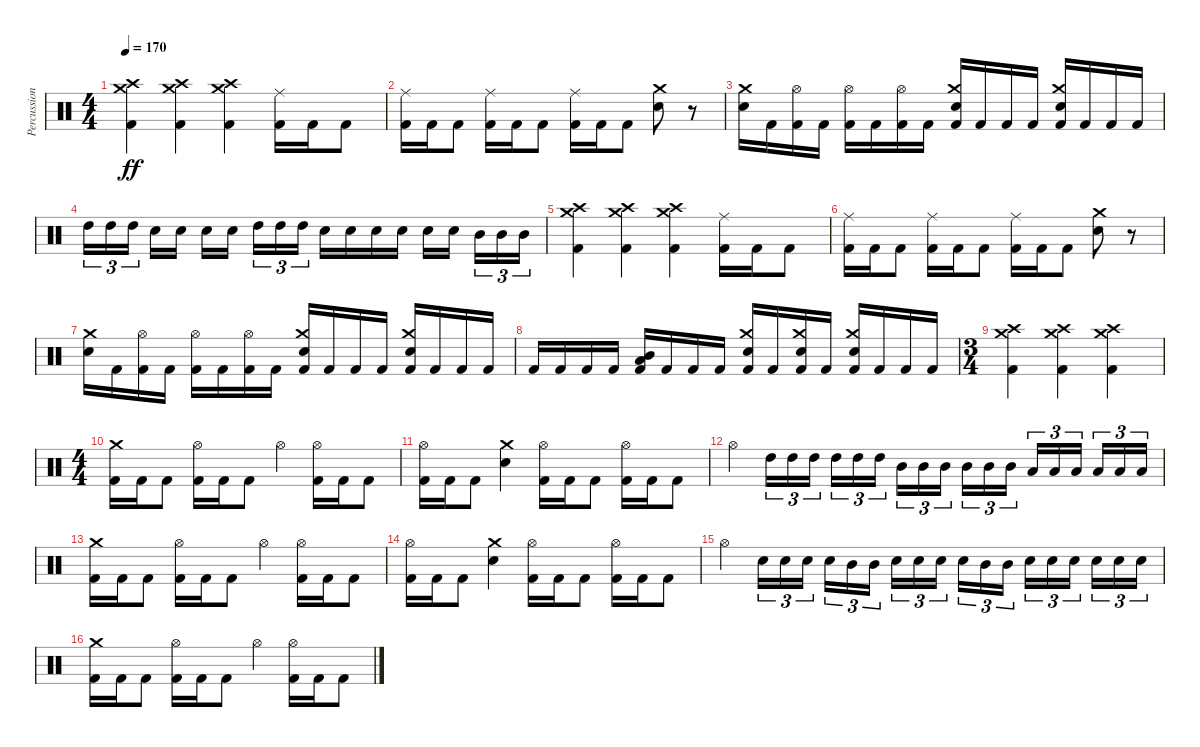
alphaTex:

\track ("Percussion" "Percussion") {instrument percussion}
\staff {score}
\articulation defaults
\ts (4 4)
\tempo 170
\clef neutral
\ks c
("Kick (hit) 2" "Crash medium (hit)" "Crash high (hit)").4{dy ff} ("Kick (hit) 2" "Crash medium (hit)" "Crash high (hit)").4 ("Kick (hit) 2" "Crash medium (hit)" "Crash high (hit)").4 ("Kick (hit) 2" "Ride (middle)").16 "Kick (hit) 2".16 "Kick (hit) 2".8 |
("Kick (hit) 2" "Ride (middle)").16 "Kick (hit) 2".16 "Kick (hit) 2".8 ("Kick (hit) 2" "Ride (middle)").16 "Kick (hit) 2".16 "Kick (hit) 2".8 ("Kick (hit) 2" "Ride (middle)").16 "Kick (hit) 2".16 "Kick (hit) 2".8 ("Crash medium (hit)" "Electric Snare (hit)").8 r.8 |
("Crash medium (hit)" "Electric Snare (hit)").16 "Kick (hit) 2".16 ("Kick (hit) 2" "Hi-Hat (open)").16 "Kick (hit) 2".16 ("Kick (hit) 2" "Hi-Hat (open)").16 "Kick (hit) 2".16 ("Kick (hit) 2" "Hi-Hat (open)").16 "Kick (hit) 2".16 ("Kick (hit) 2" "Crash medium (hit)" "Electric Snare (hit)").16 "Kick (hit) 2".16 "Kick (hit) 2".16 "Kick (hit) 2".16 ("Kick (hit) 2" "Crash medium (hit)" "Electric Snare (hit)").16 "Kick (hit) 2".16 "Kick (hit) 2".16 "Kick (hit) 2".16 |
"High Tom (hit)".16{tu (3 2)} "High Tom (hit)".16{tu (3 2)} "High Tom (hit)".16{tu (3 2)} "Electric Snare (hit)".16 "Electric Snare (hit)".16 "Electric Snare (hit)".16 "Electric Snare (hit)".16 "High Tom (hit)".16{tu (3 2)} "High Tom (hit)".16{tu (3 2)} "High Tom (hit)".16{tu (3 2)} "Electric Snare (hit)".16 "Electric Snare (hit)".16 "Electric Snare (hit)".16 "Electric Snare (hit)".16 "Electric Snare (hit)".16 "Electric Snare (hit)".16 "Mid Tom (hit)".16{tu (3 2)} "Mid Tom (hit)".16{tu (3 2)} "Mid Tom (hit)".16{tu (3 2)} |
("Kick (hit) 2" "Crash medium (hit)" "Crash high (hit)").4 ("Kick (hit) 2" "Crash medium (hit)" "Crash high (hit)").4 ("Kick (hit) 2" "Crash medium (hit)" "Crash high (hit)").4 ("Kick (hit) 2" "Ride (middle)").16 "Kick (hit) 2".16 "Kick (hit) 2".8 |
("Kick (hit) 2" "Ride (middle)").16 "Kick (hit) 2".16 "Kick (hit) 2".8 ("Kick (hit) 2" "Ride (middle)").16 "Kick (hit) 2".16 "Kick (hit) 2".8 ("Kick (hit) 2" "Ride (middle)").16 "Kick (hit) 2".16 "Kick (hit) 2".8 ("Crash medium (hit)" "Electric Snare (hit)").8 r.8 |
("Crash medium (hit)" "Electric Snare (hit)").16 "Kick (hit) 2".16 ("Kick (hit) 2" "Hi-Hat (open)").16 "Kick (hit) 2".16 ("Kick (hit) 2" "Hi-Hat (open)").16 "Kick (hit) 2".16 ("Kick (hit) 2" "Hi-Hat (open)").16 "Kick (hit) 2".16 ("Kick (hit) 2" "Crash medium (hit)" "Electric Snare (hit)").16 "Kick (hit) 2".16 "Kick (hit) 2".16 "Kick (hit) 2".16 ("Kick (hit) 2" "Crash medium (hit)" "Electric Snare (hit)").16 "Kick (hit) 2".16 "Kick (hit) 2".16 "Kick (hit) 2".16 |
"Kick (hit) 2".16 "Kick (hit) 2".16 "Kick (hit) 2".16 "Kick (hit) 2".16 ("Kick (hit) 2" "Low Tom (hit)" "Mid Tom (hit)").16 "Kick (hit) 2".16 "Kick (hit) 2".16 "Kick (hit) 2".16 ("Kick (hit) 2" "Electric Snare (hit)" "Crash medium (hit)").16 "Kick (hit) 2".16 ("Kick (hit) 2" "Electric Snare (hit)" "Crash medium (hit)").16 "Kick (hit) 2".16 ("Kick (hit) 2" "Electric Snare (hit)" "Crash medium (hit)").16 "Kick (hit) 2".16 "Kick (hit) 2".16 "Kick (hit) 2".16 |
\ts (3 4)
("Kick (hit) 2" "Crash medium (hit)" "Crash high (hit)").4 ("Kick (hit) 2" "Crash medium (hit)" "Crash high (hit)").4 ("Kick (hit) 2" "Crash medium (hit)" "Crash high (hit)").4 |
\ts (4 4)
("Kick (hit) 2" "Crash medium (hit)").16 "Kick (hit) 2".16 "Kick (hit) 2".8 ("Kick (hit) 2" "Hi-Hat (open)").16 "Kick (hit) 2".16 "Kick (hit) 2".8 "Hi-Hat (open)".4 ("Kick (hit) 2" "Hi-Hat (open)").16 "Kick (hit) 2".16 "Kick (hit) 2".8 |
("Kick (hit) 2" "Hi-Hat (open)").16 "Kick (hit) 2".16 "Kick (hit) 2".8 ("Electric Snare (hit)" "Crash medium (hit)").4 ("Kick (hit) 2" "Hi-Hat (open)").16 "Kick (hit) 2".16 "Kick (hit) 2".8 ("Kick (hit) 2" "Hi-Hat (open)").16 "Kick (hit) 2".16 "Kick (hit) 2".8 |
"Hi-Hat (open)".4 "High Tom (hit)".16{tu (3 2)} "High Tom (hit)".16{tu (3 2)} "High Tom (hit)".16{tu (3 2)} "High Tom (hit)".16{tu (3 2)} "High Tom (hit)".16{tu (3 2)} "High Tom (hit)".16{tu (3 2)} "Mid Tom (hit)".16{tu (3 2)} "Mid Tom (hit)".16{tu (3 2)} "Mid Tom (hit)".16{tu (3 2)} "Mid Tom (hit)".16{tu (3 2)} "Mid Tom (hit)".16{tu (3 2)} "Mid Tom (hit)".16{tu (3 2)} "Low Tom (hit)".16{tu (3 2)} "Low Tom (hit)".16{tu (3 2)} "Low Tom (hit)".16{tu (3 2)} "Low Tom (hit)".16{tu (3 2)} "Low Tom (hit)".16{tu (3 2)} "Low Tom (hit)".16{tu (3 2)} |
("Kick (hit) 2" "Crash medium (hit)").16 "Kick (hit) 2".16 "Kick (hit) 2".8 ("Kick (hit) 2" "Hi-Hat (open)").16 "Kick (hit) 2".16 "Kick (hit) 2".8 "Hi-Hat (open)".4 ("Kick (hit) 2" "Hi-Hat (open)").16 "Kick (hit) 2".16 "Kick (hit) 2".8 |
("Kick (hit) 2" "Hi-Hat (open)").16 "Kick (hit) 2".16 "Kick (hit) 2".8 ("Electric Snare (hit)" "Crash medium (hit)").4 ("Kick (hit) 2" "Hi-Hat (open)").16 "Kick (hit) 2".16 "Kick (hit) 2".8 ("Kick (hit) 2" "Hi-Hat (open)").16 "Kick (hit) 2".16 "Kick (hit) 2".8 |
"Hi-Hat (open)".4 "Electric Snare (hit)".16{tu (3 2)} "Electric Snare (hit)".16{tu (3 2)} "Electric Snare (hit)".16{tu (3 2)} "Electric Snare (hit)".16{tu (3 2)} "Mid Tom (hit)".16{tu (3 2)} "Mid Tom (hit)".16{tu (3 2)} "Electric Snare (hit)".16{tu (3 2)} "Electric Snare (hit)".16{tu (3 2)} "Electric Snare (hit)".16{tu (3 2)} "Electric Snare (hit)".16{tu (3 2)} "Mid Tom (hit)".16{tu (3 2)} "Mid Tom (hit)".16{tu (3 2)} "Electric Snare (hit)".16{tu (3 2)} "Electric Snare (hit)".16{tu (3 2)} "Electric Snare (hit)".16{tu (3 2)} "Electric Snare (hit)".16{tu (3 2)} "Electric Snare (hit)".16{tu (3 2)} "Electric Snare (hit)".16{tu (3 2)} |
("Kick (hit) 2" "Crash medium (hit)").16 "Kick (hit) 2".16 "Kick (hit) 2".8 ("Kick (hit) 2" "Hi-Hat (open)").16 "Kick (hit) 2".16 "Kick (hit) 2".8 "Hi-Hat (open)".4 ("Kick (hit) 2" "Hi-Hat (open)").16 "Kick (hit) 2".16 "Kick (hit) 2".8
